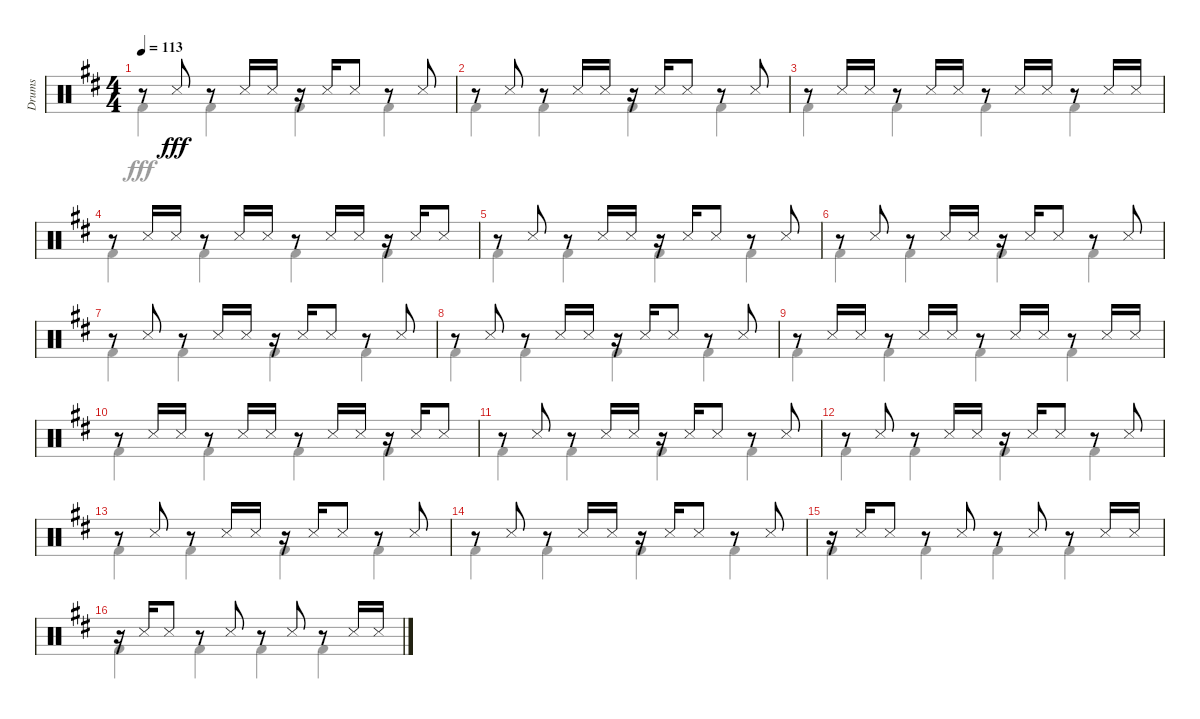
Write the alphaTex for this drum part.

\track ("Drums" "Drums") {instrument percussion}
\staff {score}
\articulation defaults
\voice
\ts (4 4)
\tempo 113
\clef neutral
\ks d
r.8{dy fff} "Snare (side stick) 3".8 r.8 "Snare (side stick) 3".16 "Snare (side stick) 3".16 r.16 "Snare (side stick) 3".16 "Snare (side stick) 3".8 r.8 "Snare (side stick) 3".8 |
r.8 "Snare (side stick) 3".8 r.8 "Snare (side stick) 3".16 "Snare (side stick) 3".16 r.16 "Snare (side stick) 3".16 "Snare (side stick) 3".8 r.8 "Snare (side stick) 3".8 |
r.8 "Snare (side stick) 3".16 "Snare (side stick) 3".16 r.8 "Snare (side stick) 3".16 "Snare (side stick) 3".16 r.8 "Snare (side stick) 3".16 "Snare (side stick) 3".16 r.8 "Snare (side stick) 3".16 "Snare (side stick) 3".16 |
r.8 "Snare (side stick) 3".16 "Snare (side stick) 3".16 r.8 "Snare (side stick) 3".16 "Snare (side stick) 3".16 r.8 "Snare (side stick) 3".16 "Snare (side stick) 3".16 r.16 "Snare (side stick) 3".16 "Snare (side stick) 3".8 |
r.8 "Snare (side stick) 3".8 r.8 "Snare (side stick) 3".16 "Snare (side stick) 3".16 r.16 "Snare (side stick) 3".16 "Snare (side stick) 3".8 r.8 "Snare (side stick) 3".8 |
r.8 "Snare (side stick) 3".8 r.8 "Snare (side stick) 3".16 "Snare (side stick) 3".16 r.16 "Snare (side stick) 3".16 "Snare (side stick) 3".8 r.8 "Snare (side stick) 3".8 |
r.8 "Snare (side stick) 3".8 r.8 "Snare (side stick) 3".16 "Snare (side stick) 3".16 r.16 "Snare (side stick) 3".16 "Snare (side stick) 3".8 r.8 "Snare (side stick) 3".8 |
r.8 "Snare (side stick) 3".8 r.8 "Snare (side stick) 3".16 "Snare (side stick) 3".16 r.16 "Snare (side stick) 3".16 "Snare (side stick) 3".8 r.8 "Snare (side stick) 3".8 |
r.8 "Snare (side stick) 3".16 "Snare (side stick) 3".16 r.8 "Snare (side stick) 3".16 "Snare (side stick) 3".16 r.8 "Snare (side stick) 3".16 "Snare (side stick) 3".16 r.8 "Snare (side stick) 3".16 "Snare (side stick) 3".16 |
r.8 "Snare (side stick) 3".16 "Snare (side stick) 3".16 r.8 "Snare (side stick) 3".16 "Snare (side stick) 3".16 r.8 "Snare (side stick) 3".16 "Snare (side stick) 3".16 r.16 "Snare (side stick) 3".16 "Snare (side stick) 3".8 |
r.8 "Snare (side stick) 3".8 r.8 "Snare (side stick) 3".16 "Snare (side stick) 3".16 r.16 "Snare (side stick) 3".16 "Snare (side stick) 3".8 r.8 "Snare (side stick) 3".8 |
r.8 "Snare (side stick) 3".8 r.8 "Snare (side stick) 3".16 "Snare (side stick) 3".16 r.16 "Snare (side stick) 3".16 "Snare (side stick) 3".8 r.8 "Snare (side stick) 3".8 |
r.8 "Snare (side stick) 3".8 r.8 "Snare (side stick) 3".16 "Snare (side stick) 3".16 r.16 "Snare (side stick) 3".16 "Snare (side stick) 3".8 r.8 "Snare (side stick) 3".8 |
r.8 "Snare (side stick) 3".8 r.8 "Snare (side stick) 3".16 "Snare (side stick) 3".16 r.16 "Snare (side stick) 3".16 "Snare (side stick) 3".8 r.8 "Snare (side stick) 3".8 |
r.16 "Snare (side stick) 3".16 "Snare (side stick) 3".8 r.8 "Snare (side stick) 3".8 r.8 "Snare (side stick) 3".8 r.8 "Snare (side stick) 3".16 "Snare (side stick) 3".16 |
r.16 "Snare (side stick) 3".16 "Snare (side stick) 3".8 r.8 "Snare (side stick) 3".8 r.8 "Snare (side stick) 3".8 r.8 "Snare (side stick) 3".16 "Snare (side stick) 3".16
\voice
\clef neutral
\ottava regular
\simile none
\ks d "Kick (hit) 2".4{dy fff} "Kick (hit) 2".4 "Kick (hit) 2".4 "Kick (hit) 2".4
|
"Kick (hit) 2".4 "Kick (hit) 2".4 "Kick (hit) 2".4 "Kick (hit) 2".4 |
"Kick (hit) 2".4 "Kick (hit) 2".4 "Kick (hit) 2".4 "Kick (hit) 2".4 |
"Kick (hit) 2".4 "Kick (hit) 2".4 "Kick (hit) 2".4 "Kick (hit) 2".4 |
"Kick (hit) 2".4 "Kick (hit) 2".4 "Kick (hit) 2".4 "Kick (hit) 2".4 |
"Kick (hit) 2".4 "Kick (hit) 2".4 "Kick (hit) 2".4 "Kick (hit) 2".4 |
"Kick (hit) 2".4 "Kick (hit) 2".4 "Kick (hit) 2".4 "Kick (hit) 2".4 |
"Kick (hit) 2".4 "Kick (hit) 2".4 "Kick (hit) 2".4 "Kick (hit) 2".4 |
"Kick (hit) 2".4 "Kick (hit) 2".4 "Kick (hit) 2".4 "Kick (hit) 2".4 |
"Kick (hit) 2".4 "Kick (hit) 2".4 "Kick (hit) 2".4 "Kick (hit) 2".4 |
"Kick (hit) 2".4 "Kick (hit) 2".4 "Kick (hit) 2".4 "Kick (hit) 2".4 |
"Kick (hit) 2".4 "Kick (hit) 2".4 "Kick (hit) 2".4 "Kick (hit) 2".4 |
"Kick (hit) 2".4 "Kick (hit) 2".4 "Kick (hit) 2".4 "Kick (hit) 2".4 |
"Kick (hit) 2".4 "Kick (hit) 2".4 "Kick (hit) 2".4 "Kick (hit) 2".4 |
"Kick (hit) 2".4 "Kick (hit) 2".4 "Kick (hit) 2".4 "Kick (hit) 2".4 |
"Kick (hit) 2".4 "Kick (hit) 2".4 "Kick (hit) 2".4 "Kick (hit) 2".4
